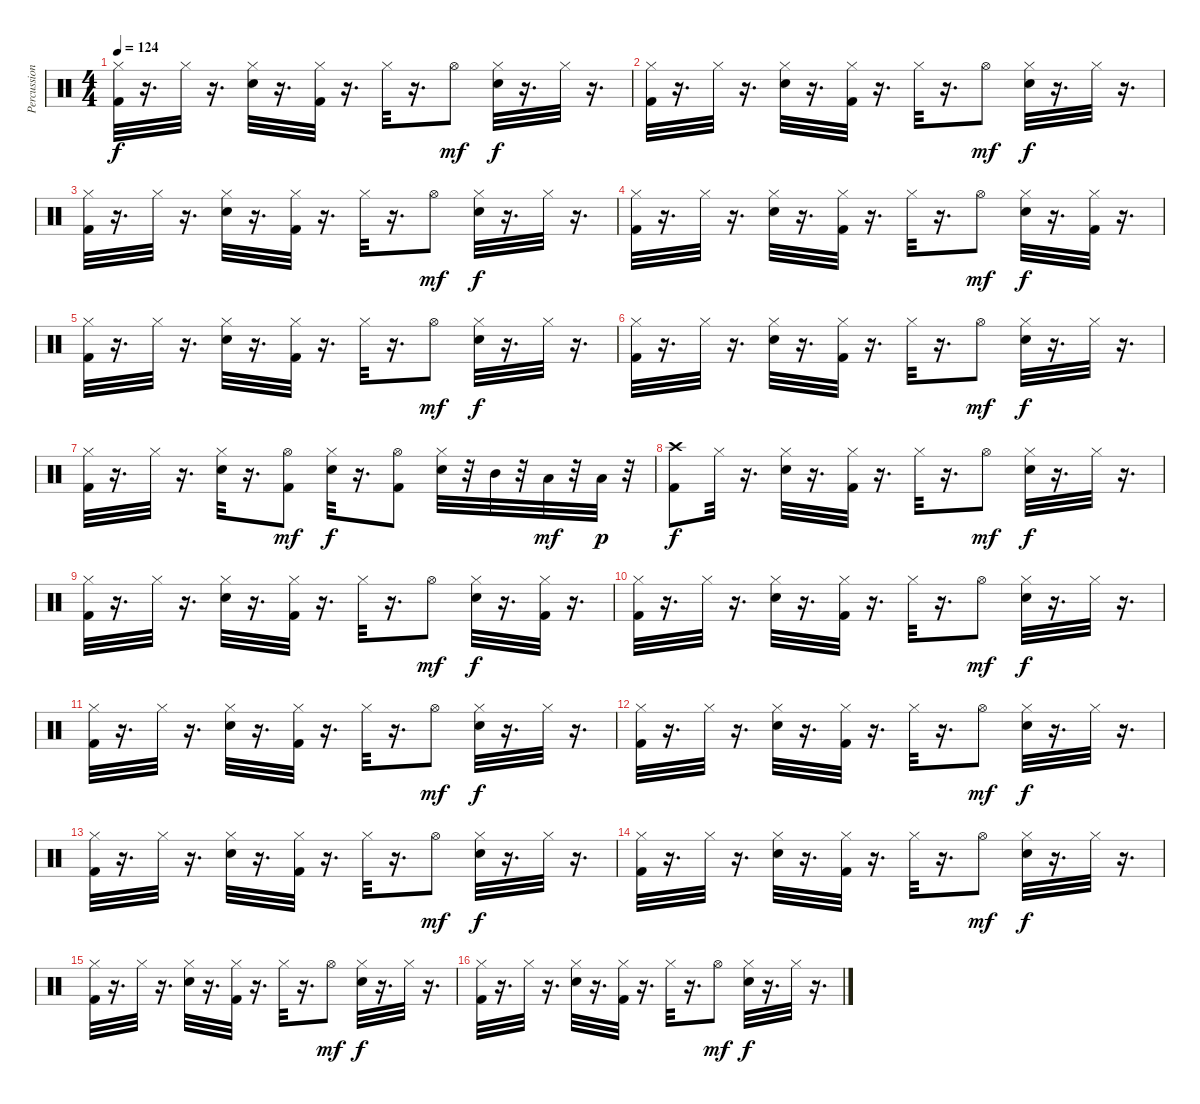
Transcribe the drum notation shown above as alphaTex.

\track ("Percussions" "Percussion") {instrument percussion}
\staff {score}
\articulation defaults
\ts (4 4)
\tempo 124
\clef neutral
\ks c
("Kick (hit) 2" "Hi-Hat (closed)").32{dy f} r.16{d} "Hi-Hat (closed)".32 r.16{d} ("Snare (hit) 2" "Hi-Hat (closed)").32 r.16{d} ("Kick (hit) 2" "Hi-Hat (closed)").32 r.16{d} "Hi-Hat (closed)".32 r.16{d} "Hi-Hat (open)".8{dy mf} ("Snare (hit) 2" "Hi-Hat (closed)").32{dy f} r.16{d} "Hi-Hat (closed)".32 r.16{d} |
("Kick (hit) 2" "Hi-Hat (closed)").32 r.16{d} "Hi-Hat (closed)".32 r.16{d} ("Snare (hit) 2" "Hi-Hat (closed)").32 r.16{d} ("Kick (hit) 2" "Hi-Hat (closed)").32 r.16{d} "Hi-Hat (closed)".32 r.16{d} "Hi-Hat (open)".8{dy mf} ("Snare (hit) 2" "Hi-Hat (closed)").32{dy f} r.16{d} "Hi-Hat (closed)".32 r.16{d} |
("Kick (hit) 2" "Hi-Hat (closed)").32 r.16{d} "Hi-Hat (closed)".32 r.16{d} ("Snare (hit) 2" "Hi-Hat (closed)").32 r.16{d} ("Kick (hit) 2" "Hi-Hat (closed)").32 r.16{d} "Hi-Hat (closed)".32 r.16{d} "Hi-Hat (open)".8{dy mf} ("Snare (hit) 2" "Hi-Hat (closed)").32{dy f} r.16{d} "Hi-Hat (closed)".32 r.16{d} |
("Kick (hit) 2" "Hi-Hat (closed)").32 r.16{d} "Hi-Hat (closed)".32 r.16{d} ("Snare (hit) 2" "Hi-Hat (closed)").32 r.16{d} ("Kick (hit) 2" "Hi-Hat (closed)").32 r.16{d} "Hi-Hat (closed)".32 r.16{d} "Hi-Hat (open)".8{dy mf} ("Snare (hit) 2" "Hi-Hat (closed)").32{dy f} r.16{d} ("Kick (hit) 2" "Hi-Hat (closed)").32 r.16{d} |
("Kick (hit) 2" "Hi-Hat (closed)").32 r.16{d} "Hi-Hat (closed)".32 r.16{d} ("Snare (hit) 2" "Hi-Hat (closed)").32 r.16{d} ("Kick (hit) 2" "Hi-Hat (closed)").32 r.16{d} "Hi-Hat (closed)".32 r.16{d} "Hi-Hat (open)".8{dy mf} ("Snare (hit) 2" "Hi-Hat (closed)").32{dy f} r.16{d} "Hi-Hat (closed)".32 r.16{d} |
("Kick (hit) 2" "Hi-Hat (closed)").32 r.16{d} "Hi-Hat (closed)".32 r.16{d} ("Snare (hit) 2" "Hi-Hat (closed)").32 r.16{d} ("Kick (hit) 2" "Hi-Hat (closed)").32 r.16{d} "Hi-Hat (closed)".32 r.16{d} "Hi-Hat (open)".8{dy mf} ("Snare (hit) 2" "Hi-Hat (closed)").32{dy f} r.16{d} "Hi-Hat (closed)".32 r.16{d} |
("Kick (hit) 2" "Hi-Hat (closed)").32 r.16{d} "Hi-Hat (closed)".32 r.16{d} ("Snare (hit) 2" "Hi-Hat (closed)").32 r.16{d} ("Kick (hit) 2" "Hi-Hat (open)").8{dy mf} ("Snare (hit) 2" "Hi-Hat (closed)").32{dy f} r.16{d} ("Kick (hit) 2" "Hi-Hat (open)").8 ("Snare (hit) 2" "Hi-Hat (closed)").32 r.32 "Mid Tom (hit)".32 r.32 "Low Tom (hit)".32{dy mf} r.32 "Low Tom (hit)".32{dy p} r.32 |
("Kick (hit) 2" "Crash high (hit)").8{dy f} "Hi-Hat (closed)".32 r.16{d} ("Snare (hit) 2" "Hi-Hat (closed)").32 r.16{d} ("Kick (hit) 2" "Hi-Hat (closed)").32 r.16{d} "Hi-Hat (closed)".32 r.16{d} "Hi-Hat (open)".8{dy mf} ("Snare (hit) 2" "Hi-Hat (closed)").32{dy f} r.16{d} "Hi-Hat (closed)".32 r.16{d} |
("Kick (hit) 2" "Hi-Hat (closed)").32 r.16{d} "Hi-Hat (closed)".32 r.16{d} ("Snare (hit) 2" "Hi-Hat (closed)").32 r.16{d} ("Kick (hit) 2" "Hi-Hat (closed)").32 r.16{d} "Hi-Hat (closed)".32 r.16{d} "Hi-Hat (open)".8{dy mf} ("Snare (hit) 2" "Hi-Hat (closed)").32{dy f} r.16{d} ("Kick (hit) 2" "Hi-Hat (closed)").32 r.16{d} |
("Kick (hit) 2" "Hi-Hat (closed)").32 r.16{d} "Hi-Hat (closed)".32 r.16{d} ("Snare (hit) 2" "Hi-Hat (closed)").32 r.16{d} ("Kick (hit) 2" "Hi-Hat (closed)").32 r.16{d} "Hi-Hat (closed)".32 r.16{d} "Hi-Hat (open)".8{dy mf} ("Snare (hit) 2" "Hi-Hat (closed)").32{dy f} r.16{d} "Hi-Hat (closed)".32 r.16{d} |
("Kick (hit) 2" "Hi-Hat (closed)").32 r.16{d} "Hi-Hat (closed)".32 r.16{d} ("Snare (hit) 2" "Hi-Hat (closed)").32 r.16{d} ("Kick (hit) 2" "Hi-Hat (closed)").32 r.16{d} "Hi-Hat (closed)".32 r.16{d} "Hi-Hat (open)".8{dy mf} ("Snare (hit) 2" "Hi-Hat (closed)").32{dy f} r.16{d} "Hi-Hat (closed)".32 r.16{d} |
("Kick (hit) 2" "Hi-Hat (closed)").32 r.16{d} "Hi-Hat (closed)".32 r.16{d} ("Snare (hit) 2" "Hi-Hat (closed)").32 r.16{d} ("Kick (hit) 2" "Hi-Hat (closed)").32 r.16{d} "Hi-Hat (closed)".32 r.16{d} "Hi-Hat (open)".8{dy mf} ("Snare (hit) 2" "Hi-Hat (closed)").32{dy f} r.16{d} "Hi-Hat (closed)".32 r.16{d} |
("Kick (hit) 2" "Hi-Hat (closed)").32 r.16{d} "Hi-Hat (closed)".32 r.16{d} ("Snare (hit) 2" "Hi-Hat (closed)").32 r.16{d} ("Kick (hit) 2" "Hi-Hat (closed)").32 r.16{d} "Hi-Hat (closed)".32 r.16{d} "Hi-Hat (open)".8{dy mf} ("Snare (hit) 2" "Hi-Hat (closed)").32{dy f} r.16{d} "Hi-Hat (closed)".32 r.16{d} |
("Kick (hit) 2" "Hi-Hat (closed)").32 r.16{d} "Hi-Hat (closed)".32 r.16{d} ("Snare (hit) 2" "Hi-Hat (closed)").32 r.16{d} ("Kick (hit) 2" "Hi-Hat (closed)").32 r.16{d} "Hi-Hat (closed)".32 r.16{d} "Hi-Hat (open)".8{dy mf} ("Snare (hit) 2" "Hi-Hat (closed)").32{dy f} r.16{d} "Hi-Hat (closed)".32 r.16{d} |
("Kick (hit) 2" "Hi-Hat (closed)").32 r.16{d} "Hi-Hat (closed)".32 r.16{d} ("Snare (hit) 2" "Hi-Hat (closed)").32 r.16{d} ("Kick (hit) 2" "Hi-Hat (closed)").32 r.16{d} "Hi-Hat (closed)".32 r.16{d} "Hi-Hat (open)".8{dy mf} ("Snare (hit) 2" "Hi-Hat (closed)").32{dy f} r.16{d} "Hi-Hat (closed)".32 r.16{d} |
("Kick (hit) 2" "Hi-Hat (closed)").32 r.16{d} "Hi-Hat (closed)".32 r.16{d} ("Snare (hit) 2" "Hi-Hat (closed)").32 r.16{d} ("Kick (hit) 2" "Hi-Hat (closed)").32 r.16{d} "Hi-Hat (closed)".32 r.16{d} "Hi-Hat (open)".8{dy mf} ("Snare (hit) 2" "Hi-Hat (closed)").32{dy f} r.16{d} "Hi-Hat (closed)".32 r.16{d}
